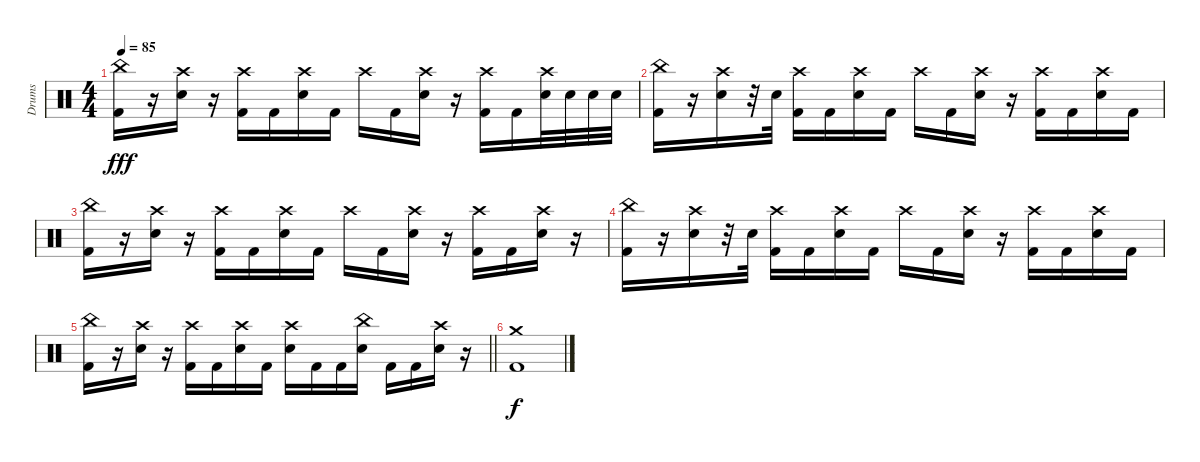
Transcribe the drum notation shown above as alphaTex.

\track ("Drums" "Drums") {instrument percussion}
\staff {score}
\articulation defaults
\ts (4 4)
\tempo 85
\clef neutral
\ks c
("Kick (hit) 2" "China (hit)").16{dy fff} r.16 ("Electric Snare (hit)" "Crash high (hit)").16 r.16 ("Kick (hit) 2" "Crash high (hit)").16 "Kick (hit) 2".16 ("Electric Snare (hit)" "Crash high (hit)").16 "Kick (hit) 2".16 "Crash high (hit)".16 "Kick (hit) 2".16 ("Electric Snare (hit)" "Crash high (hit)").16 r.16 ("Kick (hit) 2" "Crash high (hit)").16 "Kick (hit) 2".16 ("Electric Snare (hit)" "Crash high (hit)").32 "Electric Snare (hit)".32 "Electric Snare (hit)".32 "Electric Snare (hit)".32 |
("Kick (hit) 2" "China (hit)").16 r.16 ("Electric Snare (hit)" "Crash high (hit)").16 r.32 "Electric Snare (hit)".32 ("Kick (hit) 2" "Crash high (hit)").16 "Kick (hit) 2".16 ("Electric Snare (hit)" "Crash high (hit)").16 "Kick (hit) 2".16 "Crash high (hit)".16 "Kick (hit) 2".16 ("Electric Snare (hit)" "Crash high (hit)").16 r.16 ("Kick (hit) 2" "Crash high (hit)").16 "Kick (hit) 2".16 ("Electric Snare (hit)" "Crash high (hit)").16 "Kick (hit) 2".16 |
("Kick (hit) 2" "China (hit)").16 r.16 ("Electric Snare (hit)" "Crash high (hit)").16 r.16 ("Kick (hit) 2" "Crash high (hit)").16 "Kick (hit) 2".16 ("Electric Snare (hit)" "Crash high (hit)").16 "Kick (hit) 2".16 "Crash high (hit)".16 "Kick (hit) 2".16 ("Electric Snare (hit)" "Crash high (hit)").16 r.16 ("Kick (hit) 2" "Crash high (hit)").16 "Kick (hit) 2".16 ("Electric Snare (hit)" "Crash high (hit)").16 r.16 |
("Kick (hit) 2" "China (hit)").16 r.16 ("Electric Snare (hit)" "Crash high (hit)").16 r.32 "Electric Snare (hit)".32 ("Kick (hit) 2" "Crash high (hit)").16 "Kick (hit) 2".16 ("Electric Snare (hit)" "Crash high (hit)").16 "Kick (hit) 2".16 "Crash high (hit)".16 "Kick (hit) 2".16 ("Electric Snare (hit)" "Crash high (hit)").16 r.16 ("Kick (hit) 2" "Crash high (hit)").16 "Kick (hit) 2".16 ("Electric Snare (hit)" "Crash high (hit)").16 "Kick (hit) 2".16 |
\barLineRight lightlight
("Kick (hit) 2" "China (hit)").16 r.16 ("Electric Snare (hit)" "Crash high (hit)").16 r.16 ("Kick (hit) 2" "Crash high (hit)").16 "Kick (hit) 2".16 ("Electric Snare (hit)" "Crash high (hit)").16 "Kick (hit) 2".16 ("Electric Snare (hit)" "Crash high (hit)").16 "Kick (hit) 2".16 "Kick (hit) 2".16 ("Electric Snare (hit)" "China (hit)").16 "Kick (hit) 2".16 "Kick (hit) 2".16 ("Electric Snare (hit)" "Crash high (hit)").16 r.16 |
("Crash medium (hit)" "Kick (hit) 2").1{dy f}
